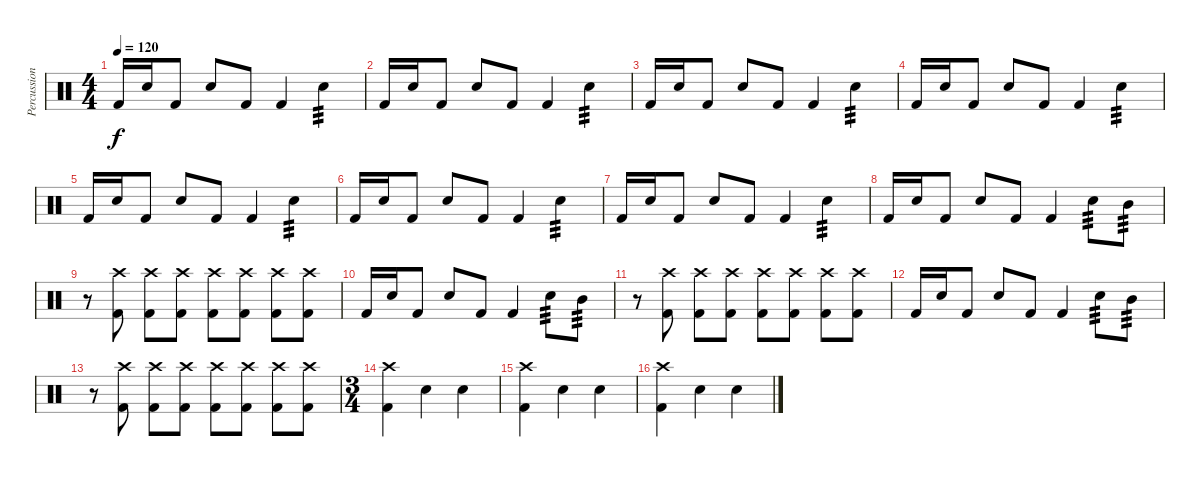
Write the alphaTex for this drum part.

\track ("Percussion" "Percussion") {instrument percussion}
\staff {score}
\articulation defaults
\ts (4 4)
\tempo 120
\clef neutral
\ks c "Kick (hit) 2".16{dy f} "Electric Snare (hit)".16 "Kick (hit) 2".8 "Electric Snare (hit)".8 "Kick (hit) 2".8 "Kick (hit) 2".4 "Electric Snare (hit)".4{tp 3}
|
"Kick (hit) 2".16 "Electric Snare (hit)".16 "Kick (hit) 2".8 "Electric Snare (hit)".8 "Kick (hit) 2".8 "Kick (hit) 2".4 "Electric Snare (hit)".4{tp 3} |
"Kick (hit) 2".16 "Electric Snare (hit)".16 "Kick (hit) 2".8 "Electric Snare (hit)".8 "Kick (hit) 2".8 "Kick (hit) 2".4 "Electric Snare (hit)".4{tp 3} |
"Kick (hit) 2".16 "Electric Snare (hit)".16 "Kick (hit) 2".8 "Electric Snare (hit)".8 "Kick (hit) 2".8 "Kick (hit) 2".4 "Electric Snare (hit)".4{tp 3} |
"Kick (hit) 2".16 "Electric Snare (hit)".16 "Kick (hit) 2".8 "Electric Snare (hit)".8 "Kick (hit) 2".8 "Kick (hit) 2".4 "Electric Snare (hit)".4{tp 3} |
"Kick (hit) 2".16 "Electric Snare (hit)".16 "Kick (hit) 2".8 "Electric Snare (hit)".8 "Kick (hit) 2".8 "Kick (hit) 2".4 "Electric Snare (hit)".4{tp 3} |
"Kick (hit) 2".16 "Electric Snare (hit)".16 "Kick (hit) 2".8 "Electric Snare (hit)".8 "Kick (hit) 2".8 "Kick (hit) 2".4 "Electric Snare (hit)".4{tp 3} |
"Kick (hit) 2".16 "Electric Snare (hit)".16 "Kick (hit) 2".8 "Electric Snare (hit)".8 "Kick (hit) 2".8 "Kick (hit) 2".4 "Electric Snare (hit)".8{tp 3} "Mid Tom (hit)".8{tp 3} |
r.8 ("Crash high (hit)" "Kick (hit) 2").8 ("Crash high (hit)" "Kick (hit) 2").8 ("Crash high (hit)" "Kick (hit) 2").8 ("Crash high (hit)" "Kick (hit) 2").8 ("Crash high (hit)" "Kick (hit) 2").8 ("Crash high (hit)" "Kick (hit) 2").8 ("Crash high (hit)" "Kick (hit) 2").8 |
"Kick (hit) 2".16 "Electric Snare (hit)".16 "Kick (hit) 2".8 "Electric Snare (hit)".8 "Kick (hit) 2".8 "Kick (hit) 2".4 "Electric Snare (hit)".8{tp 3} "Mid Tom (hit)".8{tp 3} |
r.8 ("Crash high (hit)" "Kick (hit) 2").8 ("Crash high (hit)" "Kick (hit) 2").8 ("Crash high (hit)" "Kick (hit) 2").8 ("Crash high (hit)" "Kick (hit) 2").8 ("Crash high (hit)" "Kick (hit) 2").8 ("Crash high (hit)" "Kick (hit) 2").8 ("Crash high (hit)" "Kick (hit) 2").8 |
"Kick (hit) 2".16 "Electric Snare (hit)".16 "Kick (hit) 2".8 "Electric Snare (hit)".8 "Kick (hit) 2".8 "Kick (hit) 2".4 "Electric Snare (hit)".8{tp 3} "Mid Tom (hit)".8{tp 3} |
r.8 ("Crash high (hit)" "Kick (hit) 2").8 ("Crash high (hit)" "Kick (hit) 2").8 ("Crash high (hit)" "Kick (hit) 2").8 ("Crash high (hit)" "Kick (hit) 2").8 ("Crash high (hit)" "Kick (hit) 2").8 ("Crash high (hit)" "Kick (hit) 2").8 ("Crash high (hit)" "Kick (hit) 2").8 |
\ts (3 4)
("Crash high (hit)" "Kick (hit) 2").4 "Electric Snare (hit)".4 "Electric Snare (hit)".4 |
("Crash high (hit)" "Kick (hit) 2").4 "Electric Snare (hit)".4 "Electric Snare (hit)".4 |
("Crash high (hit)" "Kick (hit) 2").4 "Electric Snare (hit)".4 "Electric Snare (hit)".4
